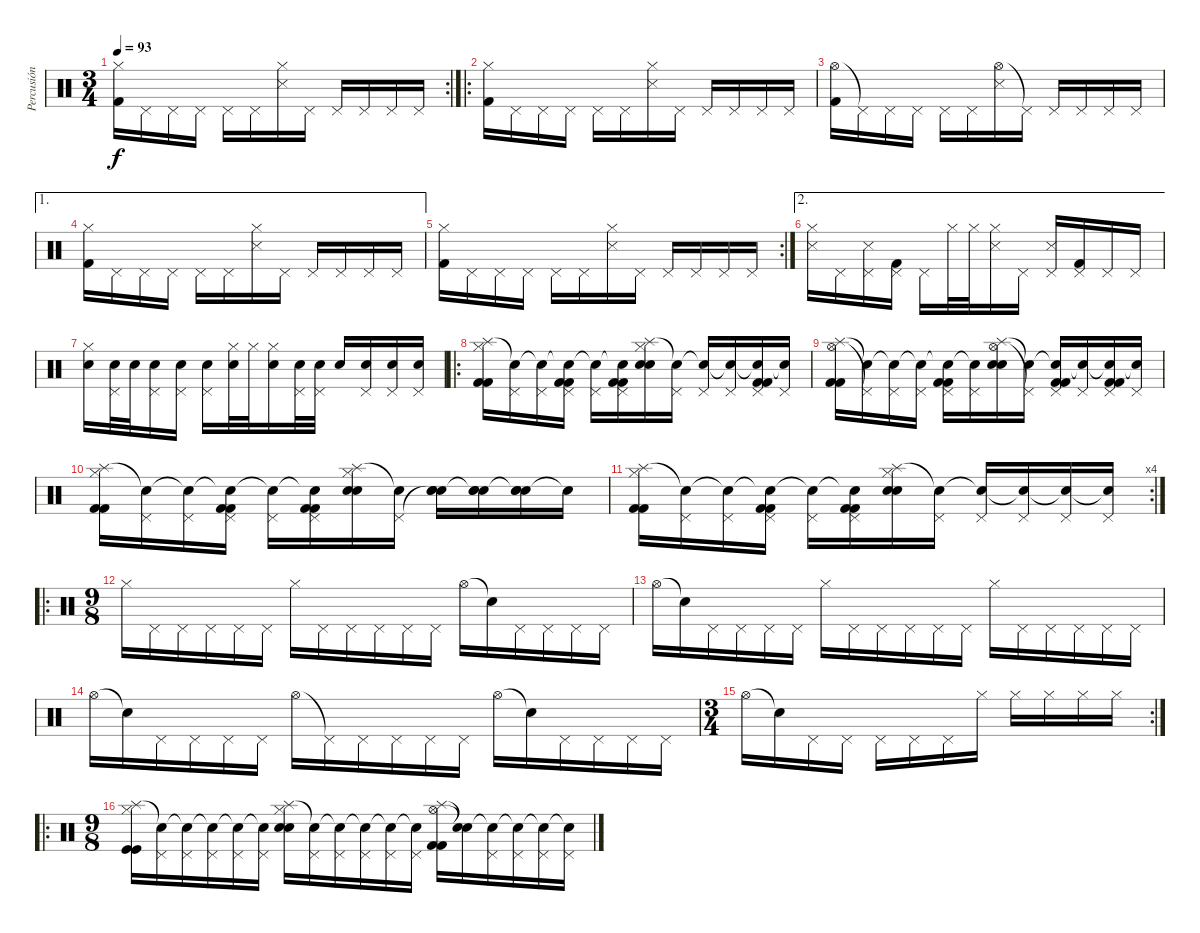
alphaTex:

\track ("Percusión" "Percusión") {instrument percussion}
\staff {score}
\articulation defaults
\rc 2
\ts (3 4)
\tempo 93
\clef neutral
\ks c
("Hi-Hat (closed)" "Kick (hit) 2").16{dy f} "Pedal Hi-Hat (hit)".16 "Pedal Hi-Hat (hit)".16 "Pedal Hi-Hat (hit)".16 "Pedal Hi-Hat (hit)".16 "Pedal Hi-Hat (hit)".16 ("Hi-Hat (closed)" "Snare (side stick) 3").16 "Pedal Hi-Hat (hit)".16 "Pedal Hi-Hat (hit)".16 "Pedal Hi-Hat (hit)".16 "Pedal Hi-Hat (hit)".16 "Pedal Hi-Hat (hit)".16 |
\ro
("Hi-Hat (closed)" "Kick (hit) 2").16 "Pedal Hi-Hat (hit)".16 "Pedal Hi-Hat (hit)".16 "Pedal Hi-Hat (hit)".16 "Pedal Hi-Hat (hit)".16 "Pedal Hi-Hat (hit)".16 ("Hi-Hat (closed)" "Snare (side stick) 3").16 "Pedal Hi-Hat (hit)".16 "Pedal Hi-Hat (hit)".16 "Pedal Hi-Hat (hit)".16 "Pedal Hi-Hat (hit)".16 "Pedal Hi-Hat (hit)".16 |
("Hi-Hat (open)" "Kick (hit) 2").16 "Pedal Hi-Hat (hit)"{t}.16 "Pedal Hi-Hat (hit)".16 "Pedal Hi-Hat (hit)".16 "Pedal Hi-Hat (hit)".16 "Pedal Hi-Hat (hit)".16 ("Hi-Hat (open)" "Snare (side stick) 3").16 "Pedal Hi-Hat (hit)"{t}.16 "Pedal Hi-Hat (hit)".16 "Pedal Hi-Hat (hit)".16 "Pedal Hi-Hat (hit)".16 "Pedal Hi-Hat (hit)".16 |
\ae 1
("Hi-Hat (closed)" "Kick (hit) 2").16 "Pedal Hi-Hat (hit)".16 "Pedal Hi-Hat (hit)".16 "Pedal Hi-Hat (hit)".16 "Pedal Hi-Hat (hit)".16 "Pedal Hi-Hat (hit)".16 ("Hi-Hat (closed)" "Snare (side stick) 3").16 "Pedal Hi-Hat (hit)".16 "Pedal Hi-Hat (hit)".16 "Pedal Hi-Hat (hit)".16 "Pedal Hi-Hat (hit)".16 "Pedal Hi-Hat (hit)".16 |
\rc 2
("Hi-Hat (closed)" "Kick (hit) 2").16 "Pedal Hi-Hat (hit)".16 "Pedal Hi-Hat (hit)".16 "Pedal Hi-Hat (hit)".16 "Pedal Hi-Hat (hit)".16 "Pedal Hi-Hat (hit)".16 ("Hi-Hat (closed)" "Snare (side stick) 3").16 "Pedal Hi-Hat (hit)".16 "Pedal Hi-Hat (hit)".16 "Pedal Hi-Hat (hit)".16 "Pedal Hi-Hat (hit)".16 "Pedal Hi-Hat (hit)".16 |
\ae 2
("Hi-Hat (closed)" "Snare (side stick) 3").16 "Pedal Hi-Hat (hit)".16 ("Pedal Hi-Hat (hit)" "Snare (side stick) 3").16 ("Pedal Hi-Hat (hit)" "Kick (hit) 2").16 "Pedal Hi-Hat (hit)".16 "Hi-Hat (closed)".32 "Hi-Hat (closed)".32 ("Hi-Hat (closed)" "Snare (side stick) 3").16 "Pedal Hi-Hat (hit)".16 ("Pedal Hi-Hat (hit)" "Snare (side stick) 3").16 ("Pedal Hi-Hat (hit)" "Kick (hit) 2").16 "Pedal Hi-Hat (hit)".16 "Pedal Hi-Hat (hit)".16 |
("Hi-Hat (closed)" "Electric Snare (hit)").16 ("Pedal Hi-Hat (hit)" "Electric Snare (hit)").32 "Electric Snare (hit)".32 ("Pedal Hi-Hat (hit)" "Electric Snare (hit)").16 ("Pedal Hi-Hat (hit)" "Electric Snare (hit)").16 ("Pedal Hi-Hat (hit)" "Electric Snare (hit)").16 ("Hi-Hat (closed)" "Electric Snare (hit)").32 "Hi-Hat (closed)".32 ("Hi-Hat (closed)" "Electric Snare (hit)").16 ("Pedal Hi-Hat (hit)" "Electric Snare (hit)").32 ("Pedal Hi-Hat (hit)" "Electric Snare (hit)").32 "Electric Snare (hit)".16 ("Pedal Hi-Hat (hit)" "Electric Snare (hit)").16 ("Pedal Hi-Hat (hit)" "Electric Snare (hit)").16 ("Pedal Hi-Hat (hit)" "Electric Snare (hit)").16 |
\ro
("Hi-Hat (closed)" "Splash (hit)" "Kick (hit) 2" "Kick (hit) 2").16 ("Pedal Hi-Hat (hit)" "Snare (hit)"{t}).16 ("Pedal Hi-Hat (hit)" "Snare (hit)"{t}).16 ("Pedal Hi-Hat (hit)" "Snare (hit)"{t} "Kick (hit) 2" "Kick (hit) 2").16 ("Pedal Hi-Hat (hit)" "Snare (hit)"{t}).16 ("Pedal Hi-Hat (hit)" "Snare (hit)"{t} "Kick (hit) 2" "Kick (hit) 2").16 ("Hi-Hat (closed)" "Splash (hit)" "Electric Snare (hit)" "Electric Snare (hit)").16 ("Pedal Hi-Hat (hit)" "Snare (hit)"{t}).16 ("Pedal Hi-Hat (hit)" "Snare (hit)"{t}).16 ("Pedal Hi-Hat (hit)" "Snare (hit)"{t}).16 ("Pedal Hi-Hat (hit)" "Snare (hit)"{t} "Kick (hit) 2" "Kick (hit) 2").16 ("Pedal Hi-Hat (hit)" "Snare (hit)"{t}).16 |
("Hi-Hat (open)" "Splash (hit)" "Kick (hit) 2" "Kick (hit) 2").16 ("Pedal Hi-Hat (hit)"{t} "Snare (hit)"{t}).16 ("Pedal Hi-Hat (hit)" "Snare (hit)"{t}).16 ("Pedal Hi-Hat (hit)" "Snare (hit)"{t}).16 ("Pedal Hi-Hat (hit)" "Snare (hit)"{t} "Kick (hit) 2" "Kick (hit) 2").16 ("Pedal Hi-Hat (hit)" "Snare (hit)"{t}).16 ("Hi-Hat (open)" "Splash (hit)" "Electric Snare (hit)" "Electric Snare (hit)").16 ("Pedal Hi-Hat (hit)"{t} "Snare (hit)"{t}).16 ("Pedal Hi-Hat (hit)" "Snare (hit)"{t} "Kick (hit) 2" "Kick (hit) 2").16 ("Pedal Hi-Hat (hit)" "Snare (hit)"{t}).16 ("Pedal Hi-Hat (hit)" "Snare (hit)"{t} "Kick (hit) 2" "Kick (hit) 2").16 ("Pedal Hi-Hat (hit)" "Snare (hit)"{t}).16 |
("Hi-Hat (closed)" "Splash (hit)" "Kick (hit) 2" "Kick (hit) 2").16 ("Pedal Hi-Hat (hit)" "Snare (hit)"{t}).16 ("Pedal Hi-Hat (hit)" "Snare (hit)"{t}).16 ("Pedal Hi-Hat (hit)" "Snare (hit)"{t} "Kick (hit) 2" "Kick (hit) 2").16 ("Pedal Hi-Hat (hit)" "Snare (hit)"{t}).16 ("Pedal Hi-Hat (hit)" "Snare (hit)"{t} "Kick (hit) 2" "Kick (hit) 2").16 ("Hi-Hat (closed)" "Splash (hit)" "Electric Snare (hit)" "Electric Snare (hit)").16 ("Pedal Hi-Hat (hit)" "Snare (hit)"{t}).16 ("Snare (hit)"{t} "Electric Snare (hit)" "Electric Snare (hit)").16 ("Snare (hit)"{t} "Electric Snare (hit)" "Electric Snare (hit)").16 ("Snare (hit)"{t} "Electric Snare (hit)" "Electric Snare (hit)").16 "Snare (hit)"{t}.16 |
\rc 4
("Hi-Hat (closed)" "Splash (hit)" "Kick (hit) 2" "Kick (hit) 2").16 ("Pedal Hi-Hat (hit)" "Snare (hit)"{t}).16 ("Pedal Hi-Hat (hit)" "Snare (hit)"{t}).16 ("Pedal Hi-Hat (hit)" "Snare (hit)"{t} "Kick (hit) 2" "Kick (hit) 2").16 ("Pedal Hi-Hat (hit)" "Snare (hit)"{t}).16 ("Pedal Hi-Hat (hit)" "Snare (hit)"{t} "Kick (hit) 2" "Kick (hit) 2").16 ("Hi-Hat (closed)" "Splash (hit)" "Electric Snare (hit)" "Electric Snare (hit)").16 ("Pedal Hi-Hat (hit)" "Snare (hit)"{t}).16 ("Pedal Hi-Hat (hit)" "Snare (hit)"{t}).16 ("Pedal Hi-Hat (hit)" "Snare (hit)"{t}).16 ("Pedal Hi-Hat (hit)" "Snare (hit)"{t}).16 ("Pedal Hi-Hat (hit)" "Snare (hit)"{t}).16 |
\ro
\ts (9 8)
"Hi-Hat (closed)".16 "Pedal Hi-Hat (hit)".16 "Pedal Hi-Hat (hit)".16 "Pedal Hi-Hat (hit)".16 "Pedal Hi-Hat (hit)".16 "Pedal Hi-Hat (hit)".16 "Hi-Hat (closed)".16 "Pedal Hi-Hat (hit)".16 "Pedal Hi-Hat (hit)".16 "Pedal Hi-Hat (hit)".16 "Pedal Hi-Hat (hit)".16 "Pedal Hi-Hat (hit)".16 "Hi-Hat (open)".16 "Snare (hit)"{t}.16 "Pedal Hi-Hat (hit)".16 "Pedal Hi-Hat (hit)".16 "Pedal Hi-Hat (hit)".16 "Pedal Hi-Hat (hit)".16 |
"Hi-Hat (open)".16 "Snare (hit)"{t}.16 "Pedal Hi-Hat (hit)".16 "Pedal Hi-Hat (hit)".16 "Pedal Hi-Hat (hit)".16 "Pedal Hi-Hat (hit)".16 "Hi-Hat (closed)".16 "Pedal Hi-Hat (hit)".16 "Pedal Hi-Hat (hit)".16 "Pedal Hi-Hat (hit)".16 "Pedal Hi-Hat (hit)".16 "Pedal Hi-Hat (hit)".16 "Hi-Hat (closed)".16 "Pedal Hi-Hat (hit)".16 "Pedal Hi-Hat (hit)".16 "Pedal Hi-Hat (hit)".16 "Pedal Hi-Hat (hit)".16 "Pedal Hi-Hat (hit)".16 |
"Hi-Hat (open)".16 "Snare (hit)"{t}.16 "Pedal Hi-Hat (hit)".16 "Pedal Hi-Hat (hit)".16 "Pedal Hi-Hat (hit)".16 "Pedal Hi-Hat (hit)".16 "Hi-Hat (open)".16 "Pedal Hi-Hat (hit)"{t}.16 "Pedal Hi-Hat (hit)".16 "Pedal Hi-Hat (hit)".16 "Pedal Hi-Hat (hit)".16 "Pedal Hi-Hat (hit)".16 "Hi-Hat (open)".16 "Snare (hit)"{t}.16 "Pedal Hi-Hat (hit)".16 "Pedal Hi-Hat (hit)".16 "Pedal Hi-Hat (hit)".16 "Pedal Hi-Hat (hit)".16 |
\rc 2
\ts (3 4)
"Hi-Hat (open)".16 "Snare (hit)"{t}.16 "Pedal Hi-Hat (hit)".16 "Pedal Hi-Hat (hit)".16 "Pedal Hi-Hat (hit)".16 "Pedal Hi-Hat (hit)".16 "Pedal Hi-Hat (hit)".16 "Hi-Hat (closed)".16 "Hi-Hat (closed)".16 "Hi-Hat (closed)".16 "Hi-Hat (closed)".16 "Hi-Hat (closed)".16 |
\ro
\ts (9 8)
("Hi-Hat (closed)" "Splash (hit)" "Kick (hit)" "Kick (hit)").16 ("Pedal Hi-Hat (hit)" "Snare (hit)"{t}).16 ("Pedal Hi-Hat (hit)" "Snare (hit)"{t}).16 ("Pedal Hi-Hat (hit)" "Snare (hit)"{t}).16 ("Pedal Hi-Hat (hit)" "Snare (hit)"{t}).16 ("Pedal Hi-Hat (hit)" "Snare (hit)"{t}).16 ("Hi-Hat (closed)" "Splash (hit)" "Electric Snare (hit)" "Electric Snare (hit)").16 ("Pedal Hi-Hat (hit)" "Snare (hit)"{t}).16 ("Pedal Hi-Hat (hit)" "Snare (hit)"{t}).16 ("Pedal Hi-Hat (hit)" "Snare (hit)"{t}).16 ("Pedal Hi-Hat (hit)" "Snare (hit)"{t}).16 ("Pedal Hi-Hat (hit)" "Snare (hit)"{t}).16 ("Hi-Hat (open)" "Splash (hit)" "Kick (hit) 2" "Kick (hit) 2").16 ("Snare (hit)"{t} "Snare (hit)"{t}).16 ("Pedal Hi-Hat (hit)" "Snare (hit)"{t}).16 ("Pedal Hi-Hat (hit)" "Snare (hit)"{t}).16 ("Pedal Hi-Hat (hit)" "Snare (hit)"{t}).16 ("Pedal Hi-Hat (hit)" "Snare (hit)"{t}).16
